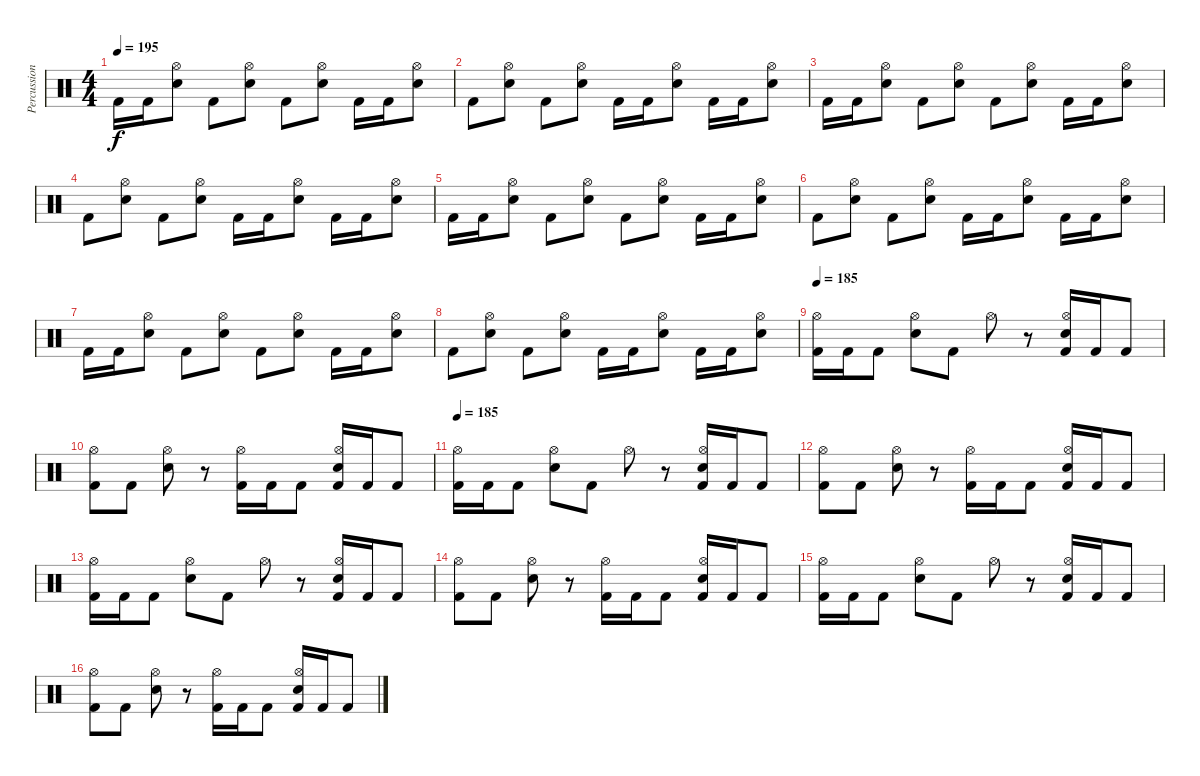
\track ("Percussion" "Percussion") {instrument percussion}
\staff {score}
\articulation defaults
\ts (4 4)
\tempo 195
\clef neutral
\ks c "Kick (hit) 2".16{dy f} "Kick (hit) 2".16
("Hi-Hat (open)" "Electric Snare (hit)").8 "Kick (hit) 2".8 ("Hi-Hat (open)" "Electric Snare (hit)").8 "Kick (hit) 2".8 ("Hi-Hat (open)" "Electric Snare (hit)").8 "Kick (hit) 2".16 "Kick (hit) 2".16 ("Hi-Hat (open)" "Electric Snare (hit)").8 |
"Kick (hit) 2".8 ("Hi-Hat (open)" "Electric Snare (hit)").8 "Kick (hit) 2".8 ("Hi-Hat (open)" "Electric Snare (hit)").8 "Kick (hit) 2".16 "Kick (hit) 2".16 ("Hi-Hat (open)" "Electric Snare (hit)").8 "Kick (hit) 2".16 "Kick (hit) 2".16 ("Hi-Hat (open)" "Electric Snare (hit)").8 |
"Kick (hit) 2".16 "Kick (hit) 2".16 ("Hi-Hat (open)" "Electric Snare (hit)").8 "Kick (hit) 2".8 ("Hi-Hat (open)" "Electric Snare (hit)").8 "Kick (hit) 2".8 ("Hi-Hat (open)" "Electric Snare (hit)").8 "Kick (hit) 2".16 "Kick (hit) 2".16 ("Hi-Hat (open)" "Electric Snare (hit)").8 |
"Kick (hit) 2".8 ("Hi-Hat (open)" "Electric Snare (hit)").8 "Kick (hit) 2".8 ("Hi-Hat (open)" "Electric Snare (hit)").8 "Kick (hit) 2".16 "Kick (hit) 2".16 ("Hi-Hat (open)" "Electric Snare (hit)").8 "Kick (hit) 2".16 "Kick (hit) 2".16 ("Hi-Hat (open)" "Electric Snare (hit)").8 |
"Kick (hit) 2".16 "Kick (hit) 2".16 ("Hi-Hat (open)" "Electric Snare (hit)").8 "Kick (hit) 2".8 ("Hi-Hat (open)" "Electric Snare (hit)").8 "Kick (hit) 2".8 ("Hi-Hat (open)" "Electric Snare (hit)").8 "Kick (hit) 2".16 "Kick (hit) 2".16 ("Hi-Hat (open)" "Electric Snare (hit)").8 |
"Kick (hit) 2".8 ("Hi-Hat (open)" "Electric Snare (hit)").8 "Kick (hit) 2".8 ("Hi-Hat (open)" "Electric Snare (hit)").8 "Kick (hit) 2".16 "Kick (hit) 2".16 ("Hi-Hat (open)" "Electric Snare (hit)").8 "Kick (hit) 2".16 "Kick (hit) 2".16 ("Hi-Hat (open)" "Electric Snare (hit)").8 |
"Kick (hit) 2".16 "Kick (hit) 2".16 ("Hi-Hat (open)" "Electric Snare (hit)").8 "Kick (hit) 2".8 ("Hi-Hat (open)" "Electric Snare (hit)").8 "Kick (hit) 2".8 ("Hi-Hat (open)" "Electric Snare (hit)").8 "Kick (hit) 2".16 "Kick (hit) 2".16 ("Hi-Hat (open)" "Electric Snare (hit)").8 |
"Kick (hit) 2".8 ("Hi-Hat (open)" "Electric Snare (hit)").8 "Kick (hit) 2".8 ("Hi-Hat (open)" "Electric Snare (hit)").8 "Kick (hit) 2".16 "Kick (hit) 2".16 ("Hi-Hat (open)" "Electric Snare (hit)").8 "Kick (hit) 2".16 "Kick (hit) 2".16 ("Hi-Hat (open)" "Electric Snare (hit)").8 |
\tempo 185
("Hi-Hat (open)" "Kick (hit) 2").16 "Kick (hit) 2".16 "Kick (hit) 2".8 ("Hi-Hat (open)" "Electric Snare (hit)").8 "Kick (hit) 2".8 "Hi-Hat (open)".8 r.8 ("Hi-Hat (open)" "Electric Snare (hit)" "Kick (hit) 2").16 "Kick (hit) 2".16 "Kick (hit) 2".8 |
("Hi-Hat (open)" "Kick (hit) 2").8 "Kick (hit) 2".8 ("Hi-Hat (open)" "Electric Snare (hit)").8 r.8 ("Hi-Hat (open)" "Kick (hit) 2").16 "Kick (hit) 2".16 "Kick (hit) 2".8 ("Hi-Hat (open)" "Electric Snare (hit)" "Kick (hit) 2").16 "Kick (hit) 2".16 "Kick (hit) 2".8 |
\tempo 185
("Hi-Hat (open)" "Kick (hit) 2").16 "Kick (hit) 2".16 "Kick (hit) 2".8 ("Hi-Hat (open)" "Electric Snare (hit)").8 "Kick (hit) 2".8 "Hi-Hat (open)".8 r.8 ("Hi-Hat (open)" "Electric Snare (hit)" "Kick (hit) 2").16 "Kick (hit) 2".16 "Kick (hit) 2".8 |
("Hi-Hat (open)" "Kick (hit) 2").8 "Kick (hit) 2".8 ("Hi-Hat (open)" "Electric Snare (hit)").8 r.8 ("Hi-Hat (open)" "Kick (hit) 2").16 "Kick (hit) 2".16 "Kick (hit) 2".8 ("Hi-Hat (open)" "Electric Snare (hit)" "Kick (hit) 2").16 "Kick (hit) 2".16 "Kick (hit) 2".8 |
("Hi-Hat (open)" "Kick (hit) 2").16 "Kick (hit) 2".16 "Kick (hit) 2".8 ("Hi-Hat (open)" "Electric Snare (hit)").8 "Kick (hit) 2".8 "Hi-Hat (open)".8 r.8 ("Hi-Hat (open)" "Electric Snare (hit)" "Kick (hit) 2").16 "Kick (hit) 2".16 "Kick (hit) 2".8 |
("Hi-Hat (open)" "Kick (hit) 2").8 "Kick (hit) 2".8 ("Hi-Hat (open)" "Electric Snare (hit)").8 r.8 ("Hi-Hat (open)" "Kick (hit) 2").16 "Kick (hit) 2".16 "Kick (hit) 2".8 ("Hi-Hat (open)" "Electric Snare (hit)" "Kick (hit) 2").16 "Kick (hit) 2".16 "Kick (hit) 2".8 |
("Hi-Hat (open)" "Kick (hit) 2").16 "Kick (hit) 2".16 "Kick (hit) 2".8 ("Hi-Hat (open)" "Electric Snare (hit)").8 "Kick (hit) 2".8 "Hi-Hat (open)".8 r.8 ("Hi-Hat (open)" "Electric Snare (hit)" "Kick (hit) 2").16 "Kick (hit) 2".16 "Kick (hit) 2".8 |
("Hi-Hat (open)" "Kick (hit) 2").8 "Kick (hit) 2".8 ("Hi-Hat (open)" "Electric Snare (hit)").8 r.8 ("Hi-Hat (open)" "Kick (hit) 2").16 "Kick (hit) 2".16 "Kick (hit) 2".8 ("Hi-Hat (open)" "Electric Snare (hit)" "Kick (hit) 2").16 "Kick (hit) 2".16 "Kick (hit) 2".8
